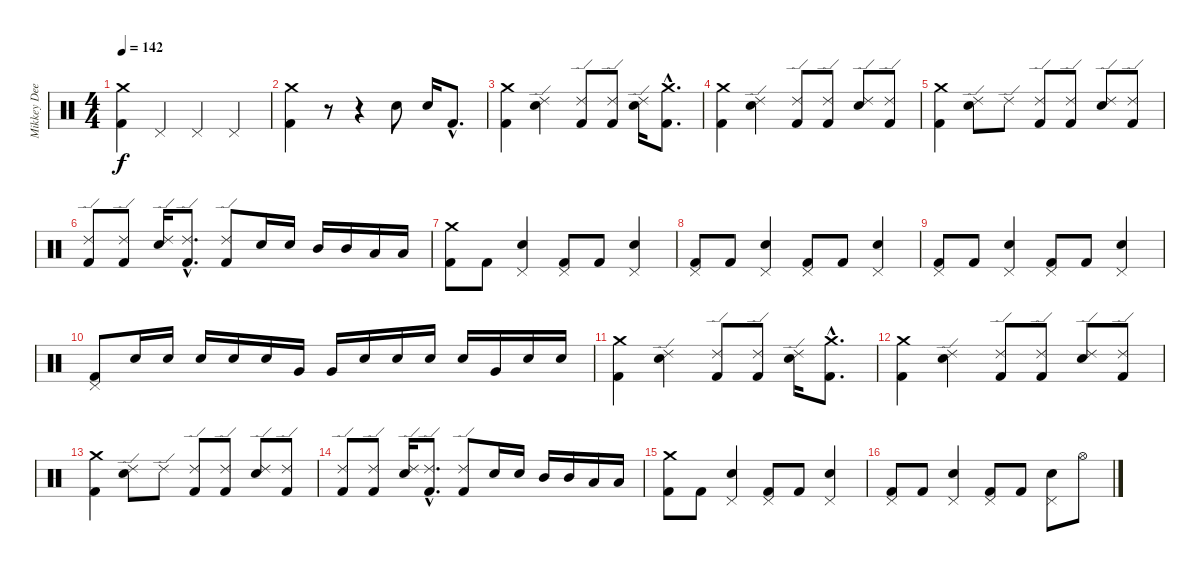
\track ("Mikkey Dee" "Mikkey Dee") {instrument percussion}
\staff {score}
\articulation defaults
\ts (4 4)
\tempo 142
\clef neutral
\ks c
("Kick (hit) 2" "Crash medium (hit)").4{dy f} "Pedal Hi-Hat (hit)".4 "Pedal Hi-Hat (hit)".4 "Pedal Hi-Hat (hit)".4 |
("Kick (hit) 2" "Crash medium (hit)").4 r.8 r.4 "Snare (hit) 2".8 "Snare (hit) 2".16 "Kick (hit) 2"{hac}.8{d} |
("Kick (hit) 2" "Crash medium (hit)").4 ("Ride (edge) 2" "Snare (hit) 2").4 ("Kick (hit) 2" "Ride (edge) 2").8 ("Kick (hit) 2" "Ride (edge) 2").8 ("Ride (edge) 2" "Snare (hit) 2").16 ("Kick (hit) 2"{hac} "Crash medium (hit)"{hac}).8{d} |
("Kick (hit) 2" "Crash medium (hit)").4 ("Ride (edge) 2" "Snare (hit) 2").4 ("Kick (hit) 2" "Ride (edge) 2").8 ("Kick (hit) 2" "Ride (edge) 2").8 ("Ride (edge) 2" "Snare (hit) 2").8 ("Kick (hit) 2" "Ride (edge) 2").8 |
("Kick (hit) 2" "Crash medium (hit)").4 ("Ride (edge) 2" "Snare (hit) 2").8 "Ride (edge) 2".8 ("Kick (hit) 2" "Ride (edge) 2").8 ("Kick (hit) 2" "Ride (edge) 2").8 ("Ride (edge) 2" "Snare (hit) 2").8 ("Kick (hit) 2" "Ride (edge) 2").8 |
("Kick (hit) 2" "Ride (edge) 2").8 ("Kick (hit) 2" "Ride (edge) 2").8 ("Ride (edge) 2" "Snare (hit) 2").16 ("Kick (hit) 2"{hac} "Ride (edge) 2"{hac}).8{d} ("Kick (hit) 2" "Ride (edge) 2").8 "Snare (hit) 2".16 "Snare (hit) 2".16 "Mid Tom (hit)".16 "Mid Tom (hit)".16 "Low Tom (hit)".16 "Low Tom (hit)".16 |
("Kick (hit) 2" "Crash medium (hit)").8 "Kick (hit) 2".8 ("Pedal Hi-Hat (hit)" "Snare (hit) 2").4 ("Kick (hit) 2" "Pedal Hi-Hat (hit)").8 "Kick (hit) 2".8 ("Pedal Hi-Hat (hit)" "Snare (hit) 2").4 |
("Kick (hit) 2" "Pedal Hi-Hat (hit)").8 "Kick (hit) 2".8 ("Pedal Hi-Hat (hit)" "Snare (hit) 2").4 ("Kick (hit) 2" "Pedal Hi-Hat (hit)").8 "Kick (hit) 2".8 ("Pedal Hi-Hat (hit)" "Snare (hit) 2").4 |
("Kick (hit) 2" "Pedal Hi-Hat (hit)").8 "Kick (hit) 2".8 ("Pedal Hi-Hat (hit)" "Snare (hit) 2").4 ("Kick (hit) 2" "Pedal Hi-Hat (hit)").8 "Kick (hit) 2".8 ("Pedal Hi-Hat (hit)" "Snare (hit) 2").4 |
("Kick (hit) 2" "Pedal Hi-Hat (hit)").8 "Snare (hit) 2".16 "Snare (hit) 2".16 "Snare (hit) 2".16 "Snare (hit) 2".16 "Snare (hit) 2".16 "Very Low Tom (hit)".16 "Very Low Tom (hit)".16 "Snare (hit) 2".16 "Snare (hit) 2".16 "Snare (hit) 2".16 "Snare (hit) 2".16 "Very Low Tom (hit)".16 "Snare (hit) 2".16 "Snare (hit) 2".16 |
("Kick (hit) 2" "Crash medium (hit)").4 ("Ride (edge) 2" "Snare (hit) 2").4 ("Kick (hit) 2" "Ride (edge) 2").8 ("Kick (hit) 2" "Ride (edge) 2").8 ("Ride (edge) 2" "Snare (hit) 2").16 ("Kick (hit) 2"{hac} "Crash medium (hit)"{hac}).8{d} |
("Kick (hit) 2" "Crash medium (hit)").4 ("Ride (edge) 2" "Snare (hit) 2").4 ("Kick (hit) 2" "Ride (edge) 2").8 ("Kick (hit) 2" "Ride (edge) 2").8 ("Ride (edge) 2" "Snare (hit) 2").8 ("Kick (hit) 2" "Ride (edge) 2").8 |
("Kick (hit) 2" "Crash medium (hit)").4 ("Ride (edge) 2" "Snare (hit) 2").8 "Ride (edge) 2".8 ("Kick (hit) 2" "Ride (edge) 2").8 ("Kick (hit) 2" "Ride (edge) 2").8 ("Ride (edge) 2" "Snare (hit) 2").8 ("Kick (hit) 2" "Ride (edge) 2").8 |
("Kick (hit) 2" "Ride (edge) 2").8 ("Kick (hit) 2" "Ride (edge) 2").8 ("Ride (edge) 2" "Snare (hit) 2").16 ("Kick (hit) 2"{hac} "Ride (edge) 2"{hac}).8{d} ("Kick (hit) 2" "Ride (edge) 2").8 "Snare (hit) 2".16 "Snare (hit) 2".16 "Mid Tom (hit)".16 "Mid Tom (hit)".16 "Low Tom (hit)".16 "Low Tom (hit)".16 |
("Kick (hit) 2" "Crash medium (hit)").8 "Kick (hit) 2".8 ("Pedal Hi-Hat (hit)" "Snare (hit) 2").4 ("Kick (hit) 2" "Pedal Hi-Hat (hit)").8 "Kick (hit) 2".8 ("Pedal Hi-Hat (hit)" "Snare (hit) 2").4 |
("Kick (hit) 2" "Pedal Hi-Hat (hit)").8 "Kick (hit) 2".8 ("Pedal Hi-Hat (hit)" "Snare (hit) 2").4 ("Kick (hit) 2" "Pedal Hi-Hat (hit)").8 "Kick (hit) 2".8 ("Pedal Hi-Hat (hit)" "Snare (hit) 2").8 "Hi-Hat (open)".8
